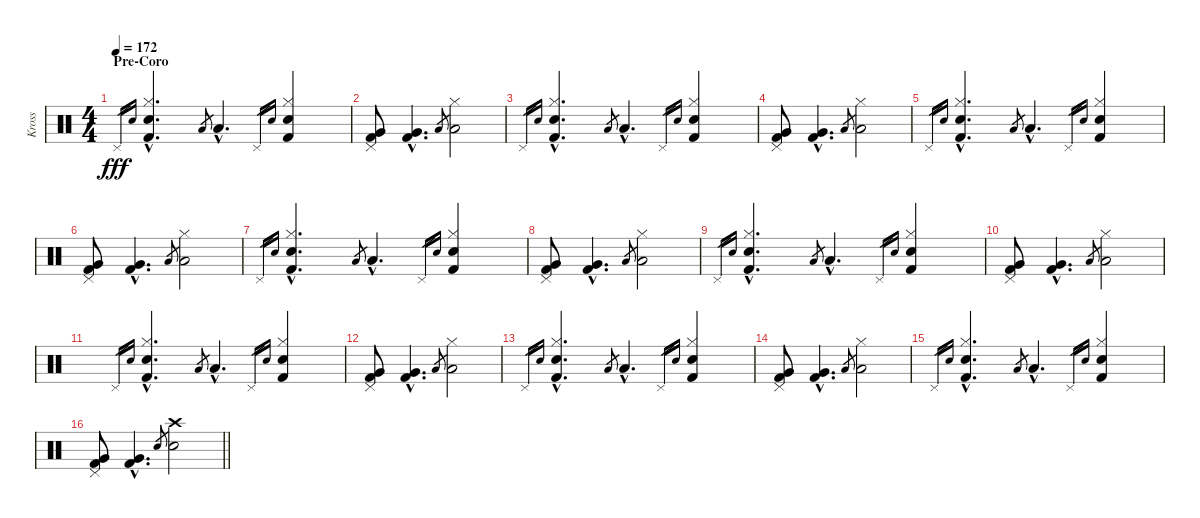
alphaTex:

\track ("Kross" "Kross") {instrument percussion}
\staff {score}
\articulation defaults
\ts (4 4)
\section ("" "Pre-Coro")
\tempo 172
\clef neutral
\ks c "Pedal Hi-Hat (hit)".16{gr dy fff} "Snare (hit) 2".16{gr}
("Hi-Hat (closed)"{hac} "Snare (hit) 2"{hac} "Kick (hit) 2"{hac}).4{d volume 16} "Low Tom (hit)".8{gr} "Low Tom (hit)"{hac}.4{d} "Pedal Hi-Hat (hit)".16{gr} "Snare (hit) 2".16{gr} ("Hi-Hat (closed)" "Snare (hit) 2" "Kick (hit) 2").4 |
("Pedal Hi-Hat (hit)" "Very Low Tom (hit)" "Kick (hit) 2").8 ("Very Low Tom (hit)"{hac} "Kick (hit) 2"{hac}).4{d} "Low Tom (hit)".8{gr} ("Hi-Hat (closed)" "Low Tom (hit)").2 |
"Pedal Hi-Hat (hit)".16{gr} "Snare (hit) 2".16{gr} ("Hi-Hat (closed)"{hac} "Snare (hit) 2"{hac} "Kick (hit) 2"{hac}).4{d} "Low Tom (hit)".8{gr} "Low Tom (hit)"{hac}.4{d} "Pedal Hi-Hat (hit)".16{gr} "Snare (hit) 2".16{gr} ("Hi-Hat (closed)" "Snare (hit) 2" "Kick (hit) 2").4 |
("Pedal Hi-Hat (hit)" "Very Low Tom (hit)" "Kick (hit) 2").8 ("Very Low Tom (hit)"{hac} "Kick (hit) 2"{hac}).4{d} "Low Tom (hit)".8{gr} ("Hi-Hat (closed)" "Low Tom (hit)").2 |
"Pedal Hi-Hat (hit)".16{gr} "Snare (hit) 2".16{gr} ("Hi-Hat (closed)"{hac} "Snare (hit) 2"{hac} "Kick (hit) 2"{hac}).4{d} "Low Tom (hit)".8{gr} "Low Tom (hit)"{hac}.4{d} "Pedal Hi-Hat (hit)".16{gr} "Snare (hit) 2".16{gr} ("Hi-Hat (closed)" "Snare (hit) 2" "Kick (hit) 2").4 |
("Pedal Hi-Hat (hit)" "Very Low Tom (hit)" "Kick (hit) 2").8 ("Very Low Tom (hit)"{hac} "Kick (hit) 2"{hac}).4{d} "Low Tom (hit)".8{gr} ("Hi-Hat (closed)" "Low Tom (hit)").2 |
"Pedal Hi-Hat (hit)".16{gr} "Snare (hit) 2".16{gr} ("Hi-Hat (closed)"{hac} "Snare (hit) 2"{hac} "Kick (hit) 2"{hac}).4{d} "Low Tom (hit)".8{gr} "Low Tom (hit)"{hac}.4{d} "Pedal Hi-Hat (hit)".16{gr} "Snare (hit) 2".16{gr} ("Hi-Hat (closed)" "Snare (hit) 2" "Kick (hit) 2").4 |
("Pedal Hi-Hat (hit)" "Very Low Tom (hit)" "Kick (hit) 2").8 ("Very Low Tom (hit)"{hac} "Kick (hit) 2"{hac}).4{d} "Low Tom (hit)".8{gr} ("Hi-Hat (closed)" "Low Tom (hit)").2 |
"Pedal Hi-Hat (hit)".16{gr} "Snare (hit) 2".16{gr} ("Hi-Hat (closed)"{hac} "Snare (hit) 2"{hac} "Kick (hit) 2"{hac}).4{d} "Low Tom (hit)".8{gr} "Low Tom (hit)"{hac}.4{d} "Pedal Hi-Hat (hit)".16{gr} "Snare (hit) 2".16{gr} ("Hi-Hat (closed)" "Snare (hit) 2" "Kick (hit) 2").4 |
("Pedal Hi-Hat (hit)" "Very Low Tom (hit)" "Kick (hit) 2").8 ("Very Low Tom (hit)"{hac} "Kick (hit) 2"{hac}).4{d} "Low Tom (hit)".8{gr} ("Hi-Hat (closed)" "Low Tom (hit)").2 |
"Pedal Hi-Hat (hit)".16{gr} "Snare (hit) 2".16{gr} ("Hi-Hat (closed)"{hac} "Snare (hit) 2"{hac} "Kick (hit) 2"{hac}).4{d} "Low Tom (hit)".8{gr} "Low Tom (hit)"{hac}.4{d} "Pedal Hi-Hat (hit)".16{gr} "Snare (hit) 2".16{gr} ("Hi-Hat (closed)" "Snare (hit) 2" "Kick (hit) 2").4 |
("Pedal Hi-Hat (hit)" "Very Low Tom (hit)" "Kick (hit) 2").8 ("Very Low Tom (hit)"{hac} "Kick (hit) 2"{hac}).4{d} "Low Tom (hit)".8{gr} ("Hi-Hat (closed)" "Low Tom (hit)").2 |
"Pedal Hi-Hat (hit)".16{gr} "Snare (hit) 2".16{gr} ("Hi-Hat (closed)"{hac} "Snare (hit) 2"{hac} "Kick (hit) 2"{hac}).4{d} "Low Tom (hit)".8{gr} "Low Tom (hit)"{hac}.4{d} "Pedal Hi-Hat (hit)".16{gr} "Snare (hit) 2".16{gr} ("Hi-Hat (closed)" "Snare (hit) 2" "Kick (hit) 2").4 |
("Pedal Hi-Hat (hit)" "Very Low Tom (hit)" "Kick (hit) 2").8 ("Very Low Tom (hit)"{hac} "Kick (hit) 2"{hac}).4{d} "Low Tom (hit)".8{gr} ("Hi-Hat (closed)" "Low Tom (hit)").2 |
"Pedal Hi-Hat (hit)".16{gr} "Snare (hit) 2".16{gr} ("Hi-Hat (closed)"{hac} "Snare (hit) 2"{hac} "Kick (hit) 2"{hac}).4{d} "Low Tom (hit)".8{gr} "Low Tom (hit)"{hac}.4{d} "Pedal Hi-Hat (hit)".16{gr} "Snare (hit) 2".16{gr} ("Hi-Hat (closed)" "Snare (hit) 2" "Kick (hit) 2").4 |
\barLineRight lightlight
("Pedal Hi-Hat (hit)" "Very Low Tom (hit)" "Kick (hit) 2").8 ("Very Low Tom (hit)"{hac} "Kick (hit) 2"{hac}).4{d} "Snare (hit) 2".8{gr} ("Crash high (hit)" "Snare (hit) 2").2
